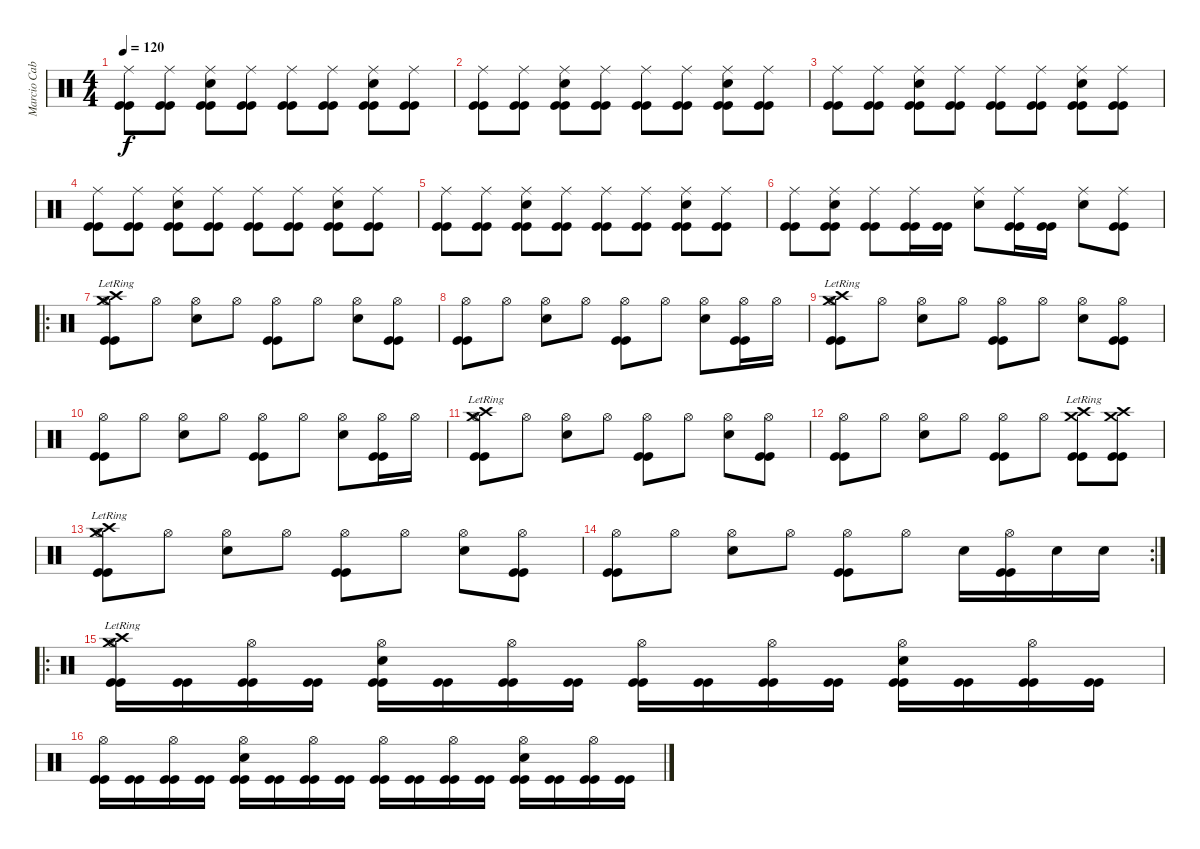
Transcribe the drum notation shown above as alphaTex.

\track ("Marcio Cabrita" "Marcio Cab") {instrument percussion}
\staff {score}
\articulation defaults
\ts (4 4)
\tempo 120
\clef neutral
\ks c
("Ride (middle)" "Kick (hit)" "Kick (hit)").8{dy f} ("Ride (middle)" "Kick (hit)" "Kick (hit)").8 ("Snare (hit) 2" "Ride (middle)" "Kick (hit)" "Kick (hit)").8 ("Ride (middle)" "Kick (hit)" "Kick (hit)").8 ("Ride (middle)" "Kick (hit)" "Kick (hit)").8 ("Ride (middle)" "Kick (hit)" "Kick (hit)").8 ("Snare (hit) 2" "Ride (middle)" "Kick (hit)" "Kick (hit)").8 ("Ride (middle)" "Kick (hit)" "Kick (hit)").8 |
("Ride (middle)" "Kick (hit)" "Kick (hit)").8 ("Ride (middle)" "Kick (hit)" "Kick (hit)").8 ("Snare (hit) 2" "Ride (middle)" "Kick (hit)" "Kick (hit)").8 ("Ride (middle)" "Kick (hit)" "Kick (hit)").8 ("Ride (middle)" "Kick (hit)" "Kick (hit)").8 ("Ride (middle)" "Kick (hit)" "Kick (hit)").8 ("Snare (hit) 2" "Ride (middle)" "Kick (hit)" "Kick (hit)").8 ("Ride (middle)" "Kick (hit)" "Kick (hit)").8 |
("Ride (middle)" "Kick (hit)" "Kick (hit)").8 ("Ride (middle)" "Kick (hit)" "Kick (hit)").8 ("Snare (hit) 2" "Ride (middle)" "Kick (hit)" "Kick (hit)").8 ("Ride (middle)" "Kick (hit)" "Kick (hit)").8 ("Ride (middle)" "Kick (hit)" "Kick (hit)").8 ("Ride (middle)" "Kick (hit)" "Kick (hit)").8 ("Snare (hit) 2" "Ride (middle)" "Kick (hit)" "Kick (hit)").8 ("Ride (middle)" "Kick (hit)" "Kick (hit)").8 |
("Ride (middle)" "Kick (hit)" "Kick (hit)").8 ("Ride (middle)" "Kick (hit)" "Kick (hit)").8 ("Snare (hit) 2" "Ride (middle)" "Kick (hit)" "Kick (hit)").8 ("Ride (middle)" "Kick (hit)" "Kick (hit)").8 ("Ride (middle)" "Kick (hit)" "Kick (hit)").8 ("Ride (middle)" "Kick (hit)" "Kick (hit)").8 ("Snare (hit) 2" "Ride (middle)" "Kick (hit)" "Kick (hit)").8 ("Ride (middle)" "Kick (hit)" "Kick (hit)").8 |
("Ride (middle)" "Kick (hit)" "Kick (hit)").8 ("Ride (middle)" "Kick (hit)" "Kick (hit)").8 ("Snare (hit) 2" "Ride (middle)" "Kick (hit)" "Kick (hit)").8 ("Ride (middle)" "Kick (hit)" "Kick (hit)").8 ("Ride (middle)" "Kick (hit)" "Kick (hit)").8 ("Ride (middle)" "Kick (hit)" "Kick (hit)").8 ("Snare (hit) 2" "Ride (middle)" "Kick (hit)" "Kick (hit)").8 ("Ride (middle)" "Kick (hit)" "Kick (hit)").8 |
("Ride (middle)" "Kick (hit)" "Kick (hit)").8 ("Snare (hit) 2" "Ride (middle)" "Kick (hit)" "Kick (hit)").8 ("Ride (middle)" "Kick (hit)" "Kick (hit)").8 ("Ride (middle)" "Kick (hit)" "Kick (hit)").16 ("Kick (hit)" "Kick (hit)").16 ("Snare (hit) 2" "Ride (middle)").8 ("Ride (middle)" "Kick (hit)" "Kick (hit)").16 ("Kick (hit)" "Kick (hit)").16 ("Snare (hit) 2" "Ride (middle)").8 ("Ride (middle)" "Kick (hit)" "Kick (hit)").8 |
\ro
("Crash high (hit)"{lr} "Crash medium (hit)"{lr} "Hi-Hat (open)" "Kick (hit)" "Kick (hit)").8 "Hi-Hat (open)".8 ("Snare (hit) 2" "Hi-Hat (open)").8 "Hi-Hat (open)".8 ("Hi-Hat (open)" "Kick (hit)" "Kick (hit)").8 "Hi-Hat (open)".8 ("Snare (hit) 2" "Hi-Hat (open)").8 ("Hi-Hat (open)" "Kick (hit)" "Kick (hit)").8 |
("Hi-Hat (open)" "Kick (hit)" "Kick (hit)").8 "Hi-Hat (open)".8 ("Snare (hit) 2" "Hi-Hat (open)").8 "Hi-Hat (open)".8 ("Hi-Hat (open)" "Kick (hit)" "Kick (hit)").8 "Hi-Hat (open)".8 ("Snare (hit) 2" "Hi-Hat (open)").8 ("Hi-Hat (open)" "Kick (hit)" "Kick (hit)").16 "Hi-Hat (open)".16 |
("Crash high (hit)"{lr} "Crash medium (hit)"{lr} "Hi-Hat (open)" "Kick (hit)" "Kick (hit)").8 "Hi-Hat (open)".8 ("Snare (hit) 2" "Hi-Hat (open)").8 "Hi-Hat (open)".8 ("Hi-Hat (open)" "Kick (hit)" "Kick (hit)").8 "Hi-Hat (open)".8 ("Snare (hit) 2" "Hi-Hat (open)").8 ("Hi-Hat (open)" "Kick (hit)" "Kick (hit)").8 |
("Hi-Hat (open)" "Kick (hit)" "Kick (hit)").8 "Hi-Hat (open)".8 ("Snare (hit) 2" "Hi-Hat (open)").8 "Hi-Hat (open)".8 ("Hi-Hat (open)" "Kick (hit)" "Kick (hit)").8 "Hi-Hat (open)".8 ("Snare (hit) 2" "Hi-Hat (open)").8 ("Hi-Hat (open)" "Kick (hit)" "Kick (hit)").16 "Hi-Hat (open)".16 |
("Crash high (hit)"{lr} "Crash medium (hit)"{lr} "Hi-Hat (open)" "Kick (hit)" "Kick (hit)").8 "Hi-Hat (open)".8 ("Snare (hit) 2" "Hi-Hat (open)").8 "Hi-Hat (open)".8 ("Hi-Hat (open)" "Kick (hit)" "Kick (hit)").8 "Hi-Hat (open)".8 ("Snare (hit) 2" "Hi-Hat (open)").8 ("Hi-Hat (open)" "Kick (hit)" "Kick (hit)").8 |
("Hi-Hat (open)" "Kick (hit)" "Kick (hit)").8 "Hi-Hat (open)".8 ("Snare (hit) 2" "Hi-Hat (open)").8 "Hi-Hat (open)".8 ("Hi-Hat (open)" "Kick (hit)" "Kick (hit)").8 "Hi-Hat (open)".8 ("Crash high (hit)"{lr} "Crash medium (hit)"{lr} "Kick (hit)" "Kick (hit)").8 ("Crash high (hit)"{lr} "Crash medium (hit)"{lr} "Kick (hit)" "Kick (hit)").8 |
("Crash high (hit)"{lr} "Crash medium (hit)"{lr} "Hi-Hat (open)" "Kick (hit)" "Kick (hit)").8 "Hi-Hat (open)".8 ("Snare (hit) 2" "Hi-Hat (open)").8 "Hi-Hat (open)".8 ("Hi-Hat (open)" "Kick (hit)" "Kick (hit)").8 "Hi-Hat (open)".8 ("Snare (hit) 2" "Hi-Hat (open)").8 ("Hi-Hat (open)" "Kick (hit)" "Kick (hit)").8 |
\rc 2
("Hi-Hat (open)" "Kick (hit)" "Kick (hit)").8 "Hi-Hat (open)".8 ("Snare (hit) 2" "Hi-Hat (open)").8 "Hi-Hat (open)".8 ("Hi-Hat (open)" "Kick (hit)" "Kick (hit)").8 "Hi-Hat (open)".8 "Snare (hit) 2".16 ("Hi-Hat (open)" "Kick (hit)" "Kick (hit)").16 "Snare (hit) 2".16 "Snare (hit) 2".16 |
\ro
("Crash high (hit)"{lr} "Crash medium (hit)"{lr} "Hi-Hat (open)" "Kick (hit)" "Kick (hit)").16 ("Kick (hit)" "Kick (hit)").16 ("Hi-Hat (open)" "Kick (hit)" "Kick (hit)").16 ("Kick (hit)" "Kick (hit)").16 ("Snare (hit) 2" "Hi-Hat (open)" "Kick (hit)" "Kick (hit)").16 ("Kick (hit)" "Kick (hit)").16 ("Hi-Hat (open)" "Kick (hit)" "Kick (hit)").16 ("Kick (hit)" "Kick (hit)").16 ("Hi-Hat (open)" "Kick (hit)" "Kick (hit)").16 ("Kick (hit)" "Kick (hit)").16 ("Hi-Hat (open)" "Kick (hit)" "Kick (hit)").16 ("Kick (hit)" "Kick (hit)").16 ("Snare (hit) 2" "Hi-Hat (open)" "Kick (hit)" "Kick (hit)").16 ("Kick (hit)" "Kick (hit)").16 ("Hi-Hat (open)" "Kick (hit)" "Kick (hit)").16 ("Kick (hit)" "Kick (hit)").16 |
("Hi-Hat (open)" "Kick (hit)" "Kick (hit)").16 ("Kick (hit)" "Kick (hit)").16 ("Hi-Hat (open)" "Kick (hit)" "Kick (hit)").16 ("Kick (hit)" "Kick (hit)").16 ("Snare (hit) 2" "Hi-Hat (open)" "Kick (hit)" "Kick (hit)").16 ("Kick (hit)" "Kick (hit)").16 ("Hi-Hat (open)" "Kick (hit)" "Kick (hit)").16 ("Kick (hit)" "Kick (hit)").16 ("Hi-Hat (open)" "Kick (hit)" "Kick (hit)").16 ("Kick (hit)" "Kick (hit)").16 ("Hi-Hat (open)" "Kick (hit)" "Kick (hit)").16 ("Kick (hit)" "Kick (hit)").16 ("Snare (hit) 2" "Hi-Hat (open)" "Kick (hit)" "Kick (hit)").16 ("Kick (hit)" "Kick (hit)").16 ("Hi-Hat (open)" "Kick (hit)" "Kick (hit)").16 ("Kick (hit)" "Kick (hit)").16
